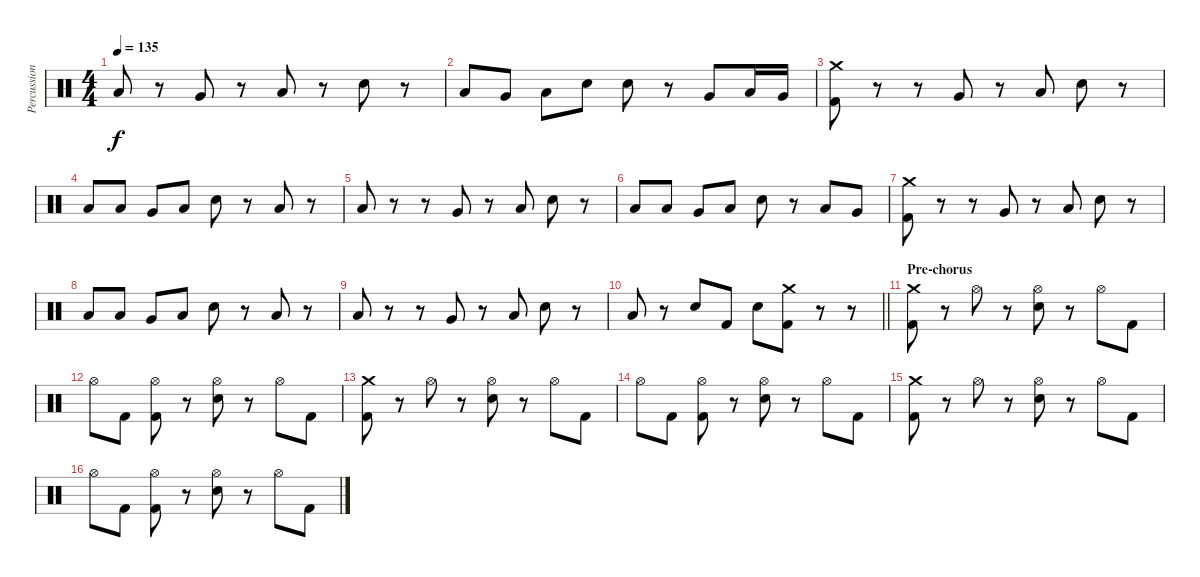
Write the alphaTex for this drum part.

\track ("Percussion" "Percussion") {instrument percussion}
\staff {score}
\articulation defaults
\ts (4 4)
\tempo 135
\clef neutral
\ks c "Low Tom (hit)".8{dy f}
r.8 "Very Low Tom (hit)".8 r.8 "Low Tom (hit)".8 r.8 "Electric Snare (hit)".8 r.8 |
"Low Tom (hit)".8 "Very Low Tom (hit)".8 "Low Tom (hit)".8 "Electric Snare (hit)".8 "Electric Snare (hit)".8 r.8 "Very Low Tom (hit)".8 "Low Tom (hit)".16 "Very Low Tom (hit)".16 |
("Crash medium (hit)" "Kick (hit) 2").8 r.8 r.8 "Very Low Tom (hit)".8 r.8 "Low Tom (hit)".8 "Electric Snare (hit)".8 r.8 |
"Low Tom (hit)".8 "Low Tom (hit)".8 "Very Low Tom (hit)".8 "Low Tom (hit)".8 "Electric Snare (hit)".8 r.8 "Low Tom (hit)".8 r.8 |
"Low Tom (hit)".8 r.8 r.8 "Very Low Tom (hit)".8 r.8 "Low Tom (hit)".8 "Electric Snare (hit)".8 r.8 |
"Low Tom (hit)".8 "Low Tom (hit)".8 "Very Low Tom (hit)".8 "Low Tom (hit)".8 "Electric Snare (hit)".8 r.8 "Low Tom (hit)".8 "Very Low Tom (hit)".8 |
("Crash medium (hit)" "Kick (hit) 2").8 r.8 r.8 "Very Low Tom (hit)".8 r.8 "Low Tom (hit)".8 "Electric Snare (hit)".8 r.8 |
"Low Tom (hit)".8 "Low Tom (hit)".8 "Very Low Tom (hit)".8 "Low Tom (hit)".8 "Electric Snare (hit)".8 r.8 "Low Tom (hit)".8 r.8 |
"Low Tom (hit)".8 r.8 r.8 "Very Low Tom (hit)".8 r.8 "Low Tom (hit)".8 "Electric Snare (hit)".8 r.8 |
\barLineRight lightlight "Low Tom (hit)".8
r.8 "Electric Snare (hit)".8 "Kick (hit) 2".8 "Electric Snare (hit)".8 ("Crash medium (hit)" "Kick (hit) 2").8 r.8 r.8 |
\section ("" "Pre-chorus")
("Crash medium (hit)" "Kick (hit) 2").8 r.8 "Hi-Hat (open)".8 r.8 ("Hi-Hat (open)" "Electric Snare (hit)").8 r.8 "Hi-Hat (open)".8 "Kick (hit) 2".8 |
"Hi-Hat (open)".8 "Kick (hit) 2".8 ("Hi-Hat (open)" "Kick (hit) 2").8 r.8 ("Hi-Hat (open)" "Electric Snare (hit)").8 r.8 "Hi-Hat (open)".8 "Kick (hit) 2".8 |
("Crash medium (hit)" "Kick (hit) 2").8 r.8 "Hi-Hat (open)".8 r.8 ("Hi-Hat (open)" "Electric Snare (hit)").8 r.8 "Hi-Hat (open)".8 "Kick (hit) 2".8 |
"Hi-Hat (open)".8 "Kick (hit) 2".8 ("Hi-Hat (open)" "Kick (hit) 2").8 r.8 ("Hi-Hat (open)" "Electric Snare (hit)").8 r.8 "Hi-Hat (open)".8 "Kick (hit) 2".8 |
("Crash medium (hit)" "Kick (hit) 2").8 r.8 "Hi-Hat (open)".8 r.8 ("Hi-Hat (open)" "Electric Snare (hit)").8 r.8 "Hi-Hat (open)".8 "Kick (hit) 2".8 |
"Hi-Hat (open)".8 "Kick (hit) 2".8 ("Hi-Hat (open)" "Kick (hit) 2").8 r.8 ("Hi-Hat (open)" "Electric Snare (hit)").8 r.8 "Hi-Hat (open)".8 "Kick (hit) 2".8
